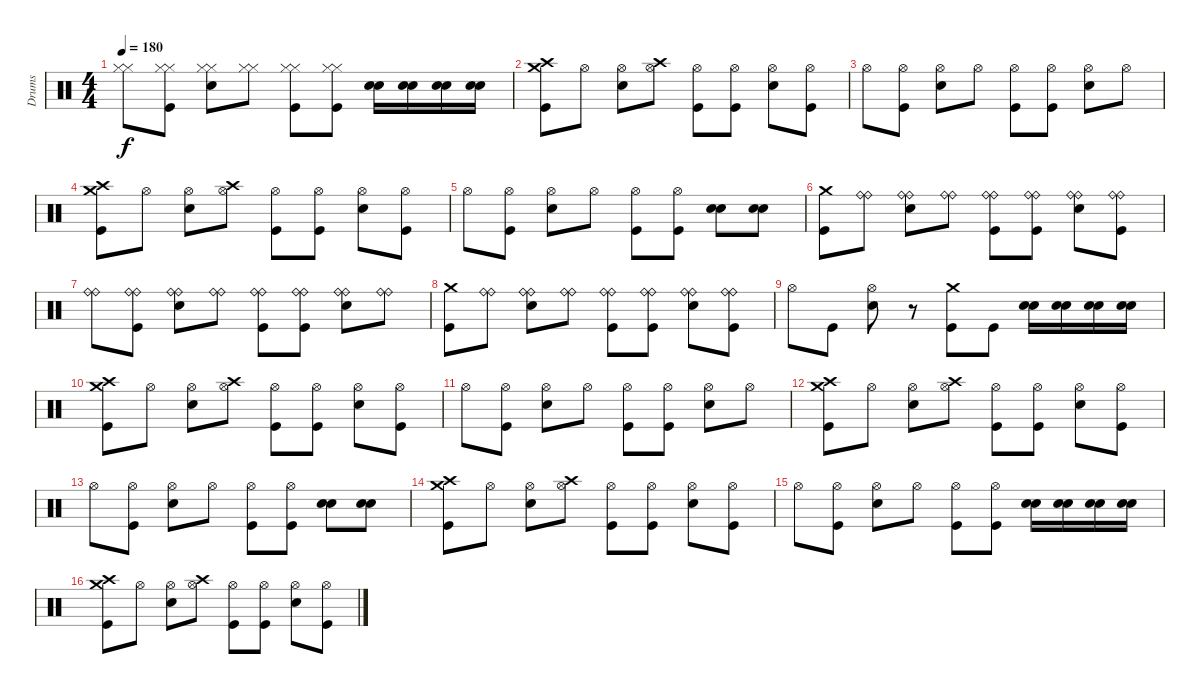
\track ("Drums" "Drums") {instrument percussion}
\staff {score}
\articulation defaults
\ts (4 4)
\tempo 180
\clef neutral
\ks c
("Hi-Hat (closed)" "Hi-Hat (closed)").8{dy f} ("Hi-Hat (closed)" "Hi-Hat (closed)" "Kick (hit)").8 ("Hi-Hat (closed)" "Hi-Hat (closed)" "Electric Snare (hit)").8 ("Hi-Hat (closed)" "Hi-Hat (closed)").8 ("Hi-Hat (closed)" "Hi-Hat (closed)" "Kick (hit)").8 ("Hi-Hat (closed)" "Hi-Hat (closed)" "Kick (hit)").8 ("Electric Snare (hit)" "Snare (hit) 2").16 ("Electric Snare (hit)" "Snare (hit) 2").16 ("Electric Snare (hit)" "Snare (hit) 2").16 ("Electric Snare (hit)" "Snare (hit) 2").16 |
("Crash high (hit)" "Crash medium (hit)" "Kick (hit)").8 "Hi-Hat (open)".8 ("Hi-Hat (open)" "Electric Snare (hit)").8 ("Hi-Hat (open)" "Crash high (hit)").8 ("Hi-Hat (open)" "Kick (hit)").8 ("Hi-Hat (open)" "Kick (hit)").8 ("Hi-Hat (open)" "Electric Snare (hit)").8 ("Hi-Hat (open)" "Kick (hit)").8 |
"Hi-Hat (open)".8 ("Hi-Hat (open)" "Kick (hit)").8 ("Hi-Hat (open)" "Electric Snare (hit)").8 "Hi-Hat (open)".8 ("Hi-Hat (open)" "Kick (hit)").8 ("Hi-Hat (open)" "Kick (hit)").8 ("Hi-Hat (open)" "Electric Snare (hit)").8 "Hi-Hat (open)".8 |
("Crash medium (hit)" "Crash high (hit)" "Kick (hit)").8 "Hi-Hat (open)".8 ("Hi-Hat (open)" "Electric Snare (hit)").8 ("Hi-Hat (open)" "Crash high (hit)").8 ("Hi-Hat (open)" "Kick (hit)").8 ("Hi-Hat (open)" "Kick (hit)").8 ("Hi-Hat (open)" "Electric Snare (hit)").8 ("Hi-Hat (open)" "Kick (hit)").8 |
"Hi-Hat (open)".8 ("Hi-Hat (open)" "Kick (hit)").8 ("Hi-Hat (open)" "Electric Snare (hit)").8 "Hi-Hat (open)".8 ("Hi-Hat (open)" "Kick (hit)").8 ("Hi-Hat (open)" "Kick (hit)").8 ("Snare (hit) 2" "Electric Snare (hit)").8 ("Snare (hit) 2" "Electric Snare (hit)").8 |
("Crash medium (hit)" "Kick (hit)").8 ("Ride (bell)" "Ride (bell)").8 ("Ride (bell)" "Ride (bell)" "Electric Snare (hit)").8 ("Ride (bell)" "Ride (bell)").8 ("Ride (bell)" "Ride (bell)" "Kick (hit)").8 ("Ride (bell)" "Ride (bell)" "Kick (hit)").8 ("Ride (bell)" "Ride (bell)" "Electric Snare (hit)").8 ("Ride (bell)" "Ride (bell)" "Kick (hit)").8 |
("Ride (bell)" "Ride (bell)").8 ("Ride (bell)" "Ride (bell)" "Kick (hit)").8 ("Ride (bell)" "Ride (bell)" "Electric Snare (hit)").8 ("Ride (bell)" "Ride (bell)").8 ("Ride (bell)" "Ride (bell)" "Kick (hit)").8 ("Ride (bell)" "Ride (bell)" "Kick (hit)").8 ("Ride (bell)" "Ride (bell)" "Electric Snare (hit)").8 ("Ride (bell)" "Ride (bell)").8 |
("Crash medium (hit)" "Kick (hit)").8 ("Ride (bell)" "Ride (bell)").8 ("Ride (bell)" "Ride (bell)" "Electric Snare (hit)").8 ("Ride (bell)" "Ride (bell)").8 ("Ride (bell)" "Ride (bell)" "Kick (hit)").8 ("Ride (bell)" "Ride (bell)" "Kick (hit)").8 ("Ride (bell)" "Ride (bell)" "Electric Snare (hit)").8 ("Ride (bell)" "Ride (bell)" "Kick (hit)").8 |
"Hi-Hat (open)".8 "Kick (hit)".8 ("Hi-Hat (open)" "Electric Snare (hit)").8 r.8 ("Crash medium (hit)" "Kick (hit)").8 "Kick (hit)".8 ("Electric Snare (hit)" "Snare (hit) 2").16 ("Electric Snare (hit)" "Snare (hit) 2").16 ("Electric Snare (hit)" "Snare (hit) 2").16 ("Electric Snare (hit)" "Snare (hit) 2").16 |
("Crash high (hit)" "Crash medium (hit)" "Kick (hit)").8 "Hi-Hat (open)".8 ("Hi-Hat (open)" "Electric Snare (hit)").8 ("Hi-Hat (open)" "Crash high (hit)").8 ("Hi-Hat (open)" "Kick (hit)").8 ("Hi-Hat (open)" "Kick (hit)").8 ("Hi-Hat (open)" "Electric Snare (hit)").8 ("Hi-Hat (open)" "Kick (hit)").8 |
"Hi-Hat (open)".8 ("Hi-Hat (open)" "Kick (hit)").8 ("Hi-Hat (open)" "Electric Snare (hit)").8 "Hi-Hat (open)".8 ("Hi-Hat (open)" "Kick (hit)").8 ("Hi-Hat (open)" "Kick (hit)").8 ("Hi-Hat (open)" "Electric Snare (hit)").8 "Hi-Hat (open)".8 |
("Crash medium (hit)" "Crash high (hit)" "Kick (hit)").8 "Hi-Hat (open)".8 ("Hi-Hat (open)" "Electric Snare (hit)").8 ("Hi-Hat (open)" "Crash high (hit)").8 ("Hi-Hat (open)" "Kick (hit)").8 ("Hi-Hat (open)" "Kick (hit)").8 ("Hi-Hat (open)" "Electric Snare (hit)").8 ("Hi-Hat (open)" "Kick (hit)").8 |
"Hi-Hat (open)".8 ("Hi-Hat (open)" "Kick (hit)").8 ("Hi-Hat (open)" "Electric Snare (hit)").8 "Hi-Hat (open)".8 ("Hi-Hat (open)" "Kick (hit)").8 ("Hi-Hat (open)" "Kick (hit)").8 ("Snare (hit) 2" "Electric Snare (hit)").8 ("Snare (hit) 2" "Electric Snare (hit)").8 |
("Crash high (hit)" "Crash medium (hit)" "Kick (hit)").8 "Hi-Hat (open)".8 ("Hi-Hat (open)" "Electric Snare (hit)").8 ("Hi-Hat (open)" "Crash high (hit)").8 ("Hi-Hat (open)" "Kick (hit)").8 ("Hi-Hat (open)" "Kick (hit)").8 ("Hi-Hat (open)" "Electric Snare (hit)").8 ("Hi-Hat (open)" "Kick (hit)").8 |
"Hi-Hat (open)".8 ("Hi-Hat (open)" "Kick (hit)").8 ("Hi-Hat (open)" "Electric Snare (hit)").8 "Hi-Hat (open)".8 ("Hi-Hat (open)" "Kick (hit)").8 ("Hi-Hat (open)" "Kick (hit)").8 ("Snare (hit) 2" "Electric Snare (hit)").16 ("Snare (hit) 2" "Electric Snare (hit)").16 ("Snare (hit) 2" "Electric Snare (hit)").16 ("Snare (hit) 2" "Electric Snare (hit)").16 |
("Crash high (hit)" "Crash medium (hit)" "Kick (hit)").8 "Hi-Hat (open)".8 ("Hi-Hat (open)" "Electric Snare (hit)").8 ("Hi-Hat (open)" "Crash high (hit)").8 ("Hi-Hat (open)" "Kick (hit)").8 ("Hi-Hat (open)" "Kick (hit)").8 ("Hi-Hat (open)" "Electric Snare (hit)").8 ("Hi-Hat (open)" "Kick (hit)").8
